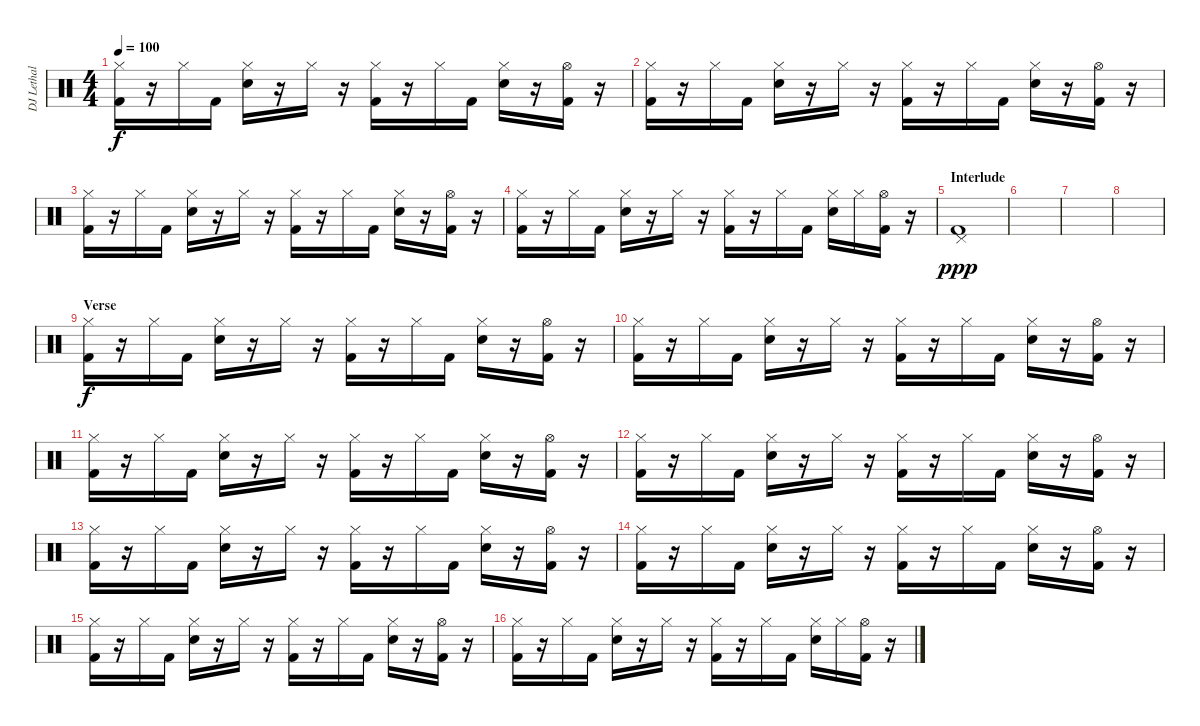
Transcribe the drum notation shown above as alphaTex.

\track ("DJ Lethal - Sample Drums" "DJ Lethal ") {instrument percussion}
\staff {score}
\articulation defaults
\ts (4 4)
\tempo 100
\clef neutral
\ks c
("Hi-Hat (closed)" "Kick (hit) 2").16{dy f} r.16 "Hi-Hat (closed)".16 "Kick (hit) 2".16 ("Hi-Hat (closed)" "Electric Snare (hit)").16 r.16 "Hi-Hat (closed)".16 r.16 ("Hi-Hat (closed)" "Kick (hit) 2").16 r.16 "Hi-Hat (closed)".16 "Kick (hit) 2".16 ("Hi-Hat (closed)" "Electric Snare (hit)").16 r.16 ("Hi-Hat (open)" "Kick (hit) 2").16 r.16 |
("Hi-Hat (closed)" "Kick (hit) 2").16 r.16 "Hi-Hat (closed)".16 "Kick (hit) 2".16 ("Hi-Hat (closed)" "Electric Snare (hit)").16 r.16 "Hi-Hat (closed)".16 r.16 ("Hi-Hat (closed)" "Kick (hit) 2").16 r.16 "Hi-Hat (closed)".16 "Kick (hit) 2".16 ("Hi-Hat (closed)" "Electric Snare (hit)").16 r.16 ("Hi-Hat (open)" "Kick (hit) 2").16 r.16 |
("Hi-Hat (closed)" "Kick (hit) 2").16 r.16 "Hi-Hat (closed)".16 "Kick (hit) 2".16 ("Hi-Hat (closed)" "Electric Snare (hit)").16 r.16 "Hi-Hat (closed)".16 r.16 ("Hi-Hat (closed)" "Kick (hit) 2").16 r.16 "Hi-Hat (closed)".16 "Kick (hit) 2".16 ("Hi-Hat (closed)" "Electric Snare (hit)").16 r.16 ("Hi-Hat (open)" "Kick (hit) 2").16 r.16 |
("Hi-Hat (closed)" "Kick (hit) 2").16 r.16 "Hi-Hat (closed)".16 "Kick (hit) 2".16 ("Hi-Hat (closed)" "Electric Snare (hit)").16 r.16 "Hi-Hat (closed)".16 r.16 ("Hi-Hat (closed)" "Kick (hit) 2").16 r.16 "Hi-Hat (closed)".16 "Kick (hit) 2".16 ("Hi-Hat (closed)" "Electric Snare (hit)").16 "Hi-Hat (closed)".16 ("Hi-Hat (open)" "Kick (hit) 2").16 r.16 |
\section ("" "Interlude")
("Pedal Hi-Hat (hit)" "Kick (hit) 2").1{dy ppp} |
|
|
|
\section ("" "Verse")
("Hi-Hat (closed)" "Kick (hit) 2").16{dy f} r.16 "Hi-Hat (closed)".16 "Kick (hit) 2".16 ("Hi-Hat (closed)" "Electric Snare (hit)").16 r.16 "Hi-Hat (closed)".16 r.16 ("Hi-Hat (closed)" "Kick (hit) 2").16 r.16 "Hi-Hat (closed)".16 "Kick (hit) 2".16 ("Hi-Hat (closed)" "Electric Snare (hit)").16 r.16 ("Hi-Hat (open)" "Kick (hit) 2").16 r.16 |
("Hi-Hat (closed)" "Kick (hit) 2").16 r.16 "Hi-Hat (closed)".16 "Kick (hit) 2".16 ("Hi-Hat (closed)" "Electric Snare (hit)").16 r.16 "Hi-Hat (closed)".16 r.16 ("Hi-Hat (closed)" "Kick (hit) 2").16 r.16 "Hi-Hat (closed)".16 "Kick (hit) 2".16 ("Hi-Hat (closed)" "Electric Snare (hit)").16 r.16 ("Hi-Hat (open)" "Kick (hit) 2").16 r.16 |
("Hi-Hat (closed)" "Kick (hit) 2").16 r.16 "Hi-Hat (closed)".16 "Kick (hit) 2".16 ("Hi-Hat (closed)" "Electric Snare (hit)").16 r.16 "Hi-Hat (closed)".16 r.16 ("Hi-Hat (closed)" "Kick (hit) 2").16 r.16 "Hi-Hat (closed)".16 "Kick (hit) 2".16 ("Hi-Hat (closed)" "Electric Snare (hit)").16 r.16 ("Hi-Hat (open)" "Kick (hit) 2").16 r.16 |
("Hi-Hat (closed)" "Kick (hit) 2").16 r.16 "Hi-Hat (closed)".16 "Kick (hit) 2".16 ("Hi-Hat (closed)" "Electric Snare (hit)").16 r.16 "Hi-Hat (closed)".16 r.16 ("Hi-Hat (closed)" "Kick (hit) 2").16 r.16 "Hi-Hat (closed)".16 "Kick (hit) 2".16 ("Hi-Hat (closed)" "Electric Snare (hit)").16 r.16 ("Hi-Hat (open)" "Kick (hit) 2").16 r.16 |
("Hi-Hat (closed)" "Kick (hit) 2").16 r.16 "Hi-Hat (closed)".16 "Kick (hit) 2".16 ("Hi-Hat (closed)" "Electric Snare (hit)").16 r.16 "Hi-Hat (closed)".16 r.16 ("Hi-Hat (closed)" "Kick (hit) 2").16 r.16 "Hi-Hat (closed)".16 "Kick (hit) 2".16 ("Hi-Hat (closed)" "Electric Snare (hit)").16 r.16 ("Hi-Hat (open)" "Kick (hit) 2").16 r.16 |
("Hi-Hat (closed)" "Kick (hit) 2").16 r.16 "Hi-Hat (closed)".16 "Kick (hit) 2".16 ("Hi-Hat (closed)" "Electric Snare (hit)").16 r.16 "Hi-Hat (closed)".16 r.16 ("Hi-Hat (closed)" "Kick (hit) 2").16 r.16 "Hi-Hat (closed)".16 "Kick (hit) 2".16 ("Hi-Hat (closed)" "Electric Snare (hit)").16 r.16 ("Hi-Hat (open)" "Kick (hit) 2").16 r.16 |
("Hi-Hat (closed)" "Kick (hit) 2").16 r.16 "Hi-Hat (closed)".16 "Kick (hit) 2".16 ("Hi-Hat (closed)" "Electric Snare (hit)").16 r.16 "Hi-Hat (closed)".16 r.16 ("Hi-Hat (closed)" "Kick (hit) 2").16 r.16 "Hi-Hat (closed)".16 "Kick (hit) 2".16 ("Hi-Hat (closed)" "Electric Snare (hit)").16 r.16 ("Hi-Hat (open)" "Kick (hit) 2").16 r.16 |
("Hi-Hat (closed)" "Kick (hit) 2").16 r.16 "Hi-Hat (closed)".16 "Kick (hit) 2".16 ("Hi-Hat (closed)" "Electric Snare (hit)").16 r.16 "Hi-Hat (closed)".16 r.16 ("Hi-Hat (closed)" "Kick (hit) 2").16 r.16 "Hi-Hat (closed)".16 "Kick (hit) 2".16 ("Hi-Hat (closed)" "Electric Snare (hit)").16 "Hi-Hat (closed)".16 ("Hi-Hat (open)" "Kick (hit) 2").16 r.16
